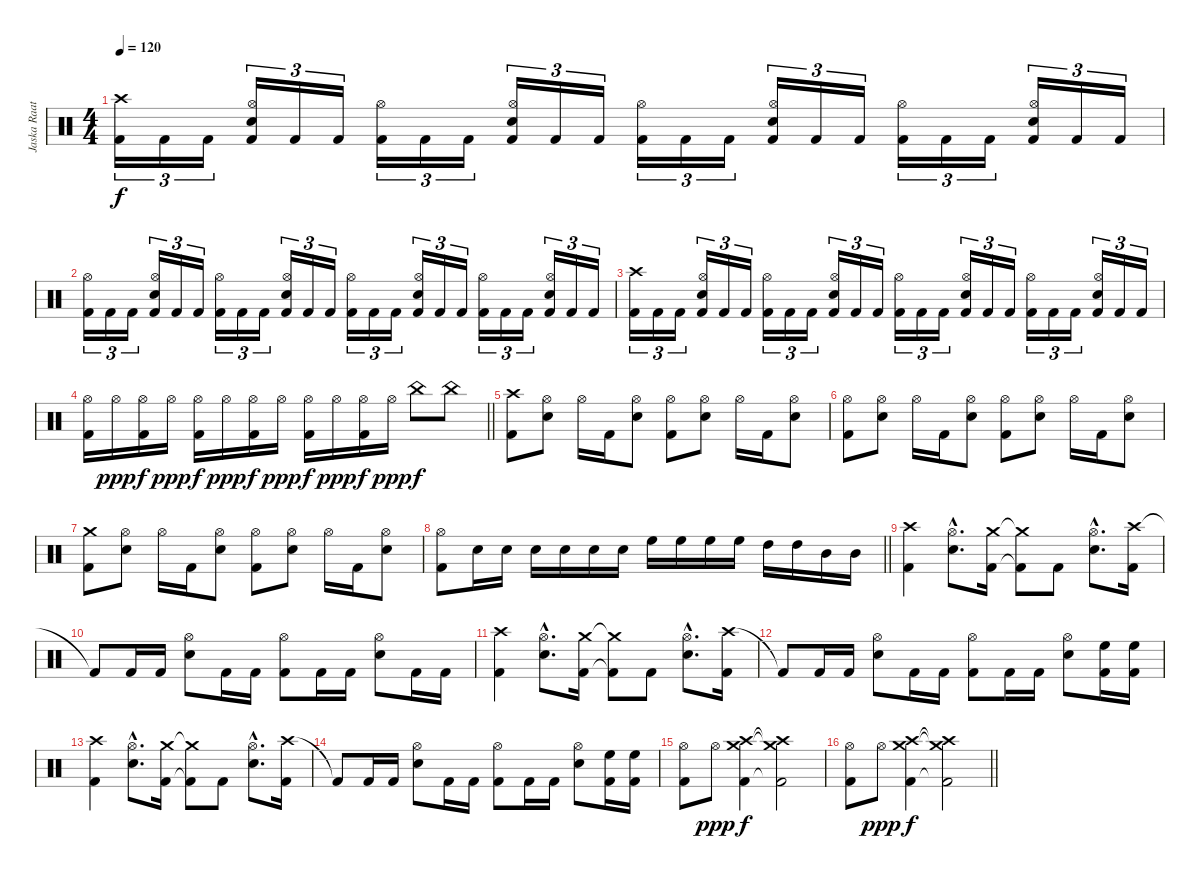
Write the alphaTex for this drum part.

\track ("Jaska Raatikainen" "Jaska Raat") {instrument percussion}
\staff {score}
\articulation defaults
\ts (4 4)
\tempo 120
\clef neutral
\ks c
("Crash high (hit)" "Kick (hit) 2").16{tu (3 2) dy f} "Kick (hit) 2".16{tu (3 2)} "Kick (hit) 2".16{tu (3 2)} ("Hi-Hat (open)" "Electric Snare (hit)" "Kick (hit) 2").16{tu (3 2)} "Kick (hit) 2".16{tu (3 2)} "Kick (hit) 2".16{tu (3 2)} ("Hi-Hat (open)" "Kick (hit) 2").16{tu (3 2)} "Kick (hit) 2".16{tu (3 2)} "Kick (hit) 2".16{tu (3 2)} ("Hi-Hat (open)" "Electric Snare (hit)" "Kick (hit) 2").16{tu (3 2)} "Kick (hit) 2".16{tu (3 2)} "Kick (hit) 2".16{tu (3 2)} ("Hi-Hat (open)" "Kick (hit) 2").16{tu (3 2)} "Kick (hit) 2".16{tu (3 2)} "Kick (hit) 2".16{tu (3 2)} ("Hi-Hat (open)" "Electric Snare (hit)" "Kick (hit) 2").16{tu (3 2)} "Kick (hit) 2".16{tu (3 2)} "Kick (hit) 2".16{tu (3 2)} ("Hi-Hat (open)" "Kick (hit) 2").16{tu (3 2)} "Kick (hit) 2".16{tu (3 2)} "Kick (hit) 2".16{tu (3 2)} ("Hi-Hat (open)" "Electric Snare (hit)" "Kick (hit) 2").16{tu (3 2)} "Kick (hit) 2".16{tu (3 2)} "Kick (hit) 2".16{tu (3 2)} |
("Hi-Hat (open)" "Kick (hit) 2").16{tu (3 2)} "Kick (hit) 2".16{tu (3 2)} "Kick (hit) 2".16{tu (3 2)} ("Hi-Hat (open)" "Electric Snare (hit)" "Kick (hit) 2").16{tu (3 2)} "Kick (hit) 2".16{tu (3 2)} "Kick (hit) 2".16{tu (3 2)} ("Hi-Hat (open)" "Kick (hit) 2").16{tu (3 2)} "Kick (hit) 2".16{tu (3 2)} "Kick (hit) 2".16{tu (3 2)} ("Hi-Hat (open)" "Electric Snare (hit)" "Kick (hit) 2").16{tu (3 2)} "Kick (hit) 2".16{tu (3 2)} "Kick (hit) 2".16{tu (3 2)} ("Hi-Hat (open)" "Kick (hit) 2").16{tu (3 2)} "Kick (hit) 2".16{tu (3 2)} "Kick (hit) 2".16{tu (3 2)} ("Hi-Hat (open)" "Electric Snare (hit)" "Kick (hit) 2").16{tu (3 2)} "Kick (hit) 2".16{tu (3 2)} "Kick (hit) 2".16{tu (3 2)} ("Hi-Hat (open)" "Kick (hit) 2").16{tu (3 2)} "Kick (hit) 2".16{tu (3 2)} "Kick (hit) 2".16{tu (3 2)} ("Hi-Hat (open)" "Electric Snare (hit)" "Kick (hit) 2").16{tu (3 2)} "Kick (hit) 2".16{tu (3 2)} "Kick (hit) 2".16{tu (3 2)} |
("Crash high (hit)" "Kick (hit) 2").16{tu (3 2)} "Kick (hit) 2".16{tu (3 2)} "Kick (hit) 2".16{tu (3 2)} ("Hi-Hat (open)" "Electric Snare (hit)" "Kick (hit) 2").16{tu (3 2)} "Kick (hit) 2".16{tu (3 2)} "Kick (hit) 2".16{tu (3 2)} ("Hi-Hat (open)" "Kick (hit) 2").16{tu (3 2)} "Kick (hit) 2".16{tu (3 2)} "Kick (hit) 2".16{tu (3 2)} ("Hi-Hat (open)" "Electric Snare (hit)" "Kick (hit) 2").16{tu (3 2)} "Kick (hit) 2".16{tu (3 2)} "Kick (hit) 2".16{tu (3 2)} ("Hi-Hat (open)" "Kick (hit) 2").16{tu (3 2)} "Kick (hit) 2".16{tu (3 2)} "Kick (hit) 2".16{tu (3 2)} ("Hi-Hat (open)" "Electric Snare (hit)" "Kick (hit) 2").16{tu (3 2)} "Kick (hit) 2".16{tu (3 2)} "Kick (hit) 2".16{tu (3 2)} ("Hi-Hat (open)" "Kick (hit) 2").16{tu (3 2)} "Kick (hit) 2".16{tu (3 2)} "Kick (hit) 2".16{tu (3 2)} ("Hi-Hat (open)" "Electric Snare (hit)" "Kick (hit) 2").16{tu (3 2)} "Kick (hit) 2".16{tu (3 2)} "Kick (hit) 2".16{tu (3 2)} |
\barLineRight lightlight
("Hi-Hat (open)" "Kick (hit) 2").16 "Hi-Hat (open)".16{dy ppp} ("Hi-Hat (open)" "Kick (hit) 2").16{dy f} "Hi-Hat (open)".16{dy ppp} ("Hi-Hat (open)" "Kick (hit) 2").16{dy f} "Hi-Hat (open)".16{dy ppp} ("Hi-Hat (open)" "Kick (hit) 2").16{dy f} "Hi-Hat (open)".16{dy ppp} ("Hi-Hat (open)" "Kick (hit) 2").16{dy f} "Hi-Hat (open)".16{dy ppp} ("Hi-Hat (open)" "Kick (hit) 2").16{dy f} "Hi-Hat (open)".16{dy ppp} "China (hit)".8{dy f} "China (hit)".8 |
("Crash high (hit)" "Kick (hit) 2").8 ("Hi-Hat (open)" "Electric Snare (hit)").8 "Hi-Hat (open)".16 "Kick (hit) 2".16 ("Hi-Hat (open)" "Electric Snare (hit)").8 ("Hi-Hat (open)" "Kick (hit) 2").8 ("Hi-Hat (open)" "Electric Snare (hit)").8 "Hi-Hat (open)".16 "Kick (hit) 2".16 ("Hi-Hat (open)" "Electric Snare (hit)").8 |
("Hi-Hat (open)" "Kick (hit) 2").8 ("Hi-Hat (open)" "Electric Snare (hit)").8 "Hi-Hat (open)".16 "Kick (hit) 2".16 ("Hi-Hat (open)" "Electric Snare (hit)").8 ("Hi-Hat (open)" "Kick (hit) 2").8 ("Hi-Hat (open)" "Electric Snare (hit)").8 "Hi-Hat (open)".16 "Kick (hit) 2".16 ("Hi-Hat (open)" "Electric Snare (hit)").8 |
("Crash medium (hit)" "Kick (hit) 2").8 ("Hi-Hat (open)" "Electric Snare (hit)").8 "Hi-Hat (open)".16 "Kick (hit) 2".16 ("Hi-Hat (open)" "Electric Snare (hit)").8 ("Hi-Hat (open)" "Kick (hit) 2").8 ("Hi-Hat (open)" "Electric Snare (hit)").8 "Hi-Hat (open)".16 "Kick (hit) 2".16 ("Hi-Hat (open)" "Electric Snare (hit)").8 |
\barLineRight lightlight
("Hi-Hat (open)" "Kick (hit) 2").8 "Electric Snare (hit)".16 "Electric Snare (hit)".16 "Electric Snare (hit)".16 "Electric Snare (hit)".16 "Electric Snare (hit)".16 "Electric Snare (hit)".16 "High Floor Tom (hit)".16 "High Floor Tom (hit)".16 "High Floor Tom (hit)".16 "High Floor Tom (hit)".16 "High Tom (hit)".16 "High Tom (hit)".16 "Mid Tom (hit)".16 "Mid Tom (hit)".16 |
("Crash high (hit)" "Kick (hit) 2").4 ("Hi-Hat (open)"{hac} "Electric Snare (hit)"{hac}).8{d} ("Crash medium (hit)" "Kick (hit) 2").16 ("Crash medium (hit)"{t} "Kick (hit) 2"{t}).8 "Kick (hit) 2".8 ("Hi-Hat (open)"{hac} "Electric Snare (hit)"{hac}).8{d} ("Crash high (hit)" "Kick (hit) 2").16 |
"Kick (hit) 2"{t}.8 "Kick (hit) 2".16 "Kick (hit) 2".16 ("Hi-Hat (open)" "Electric Snare (hit)").8 "Kick (hit) 2".16 "Kick (hit) 2".16 ("Hi-Hat (open)" "Kick (hit) 2").8 "Kick (hit) 2".16 "Kick (hit) 2".16 ("Hi-Hat (open)" "Electric Snare (hit)").8 "Kick (hit) 2".16 "Kick (hit) 2".16 |
("Crash high (hit)" "Kick (hit) 2").4 ("Hi-Hat (open)"{hac} "Electric Snare (hit)"{hac}).8{d} ("Crash medium (hit)" "Kick (hit) 2").16 ("Crash medium (hit)"{t} "Kick (hit) 2"{t}).8 "Kick (hit) 2".8 ("Hi-Hat (open)"{hac} "Electric Snare (hit)"{hac}).8{d} ("Crash high (hit)" "Kick (hit) 2").16 |
"Kick (hit) 2"{t}.8 "Kick (hit) 2".16 "Kick (hit) 2".16 ("Hi-Hat (open)" "Electric Snare (hit)").8 "Kick (hit) 2".16 "Kick (hit) 2".16 ("Hi-Hat (open)" "Kick (hit) 2").8 "Kick (hit) 2".16 "Kick (hit) 2".16 ("Hi-Hat (open)" "Electric Snare (hit)").8 ("High Floor Tom (hit)" "Kick (hit) 2").16 ("High Floor Tom (hit)" "Kick (hit) 2").16 |
("Crash high (hit)" "Kick (hit) 2").4 ("Hi-Hat (open)"{hac} "Electric Snare (hit)"{hac}).8{d} ("Crash medium (hit)" "Kick (hit) 2").16 ("Crash medium (hit)"{t} "Kick (hit) 2"{t}).8 "Kick (hit) 2".8 ("Hi-Hat (open)"{hac} "Electric Snare (hit)"{hac}).8{d} ("Crash high (hit)" "Kick (hit) 2").16 |
"Kick (hit) 2"{t}.8 "Kick (hit) 2".16 "Kick (hit) 2".16 ("Hi-Hat (open)" "Electric Snare (hit)").8 "Kick (hit) 2".16 "Kick (hit) 2".16 ("Hi-Hat (open)" "Kick (hit) 2").8 "Kick (hit) 2".16 "Kick (hit) 2".16 ("Hi-Hat (open)" "Electric Snare (hit)").8 ("High Floor Tom (hit)" "Kick (hit) 2").16 ("High Floor Tom (hit)" "Kick (hit) 2").16 |
("Hi-Hat (open)" "Kick (hit) 2").8 "Hi-Hat (open)".8{dy ppp} ("Crash high (hit)" "Crash medium (hit)" "Kick (hit) 2").4{dy f} ("Crash high (hit)"{t} "Crash medium (hit)"{t} "Kick (hit) 2"{t}).2 |
\barLineRight lightlight
("Hi-Hat (open)" "Kick (hit) 2").8 "Hi-Hat (open)".8{dy ppp} ("Crash high (hit)" "Crash medium (hit)" "Kick (hit) 2").4{dy f} ("Crash high (hit)"{t} "Crash medium (hit)"{t} "Kick (hit) 2"{t}).2
